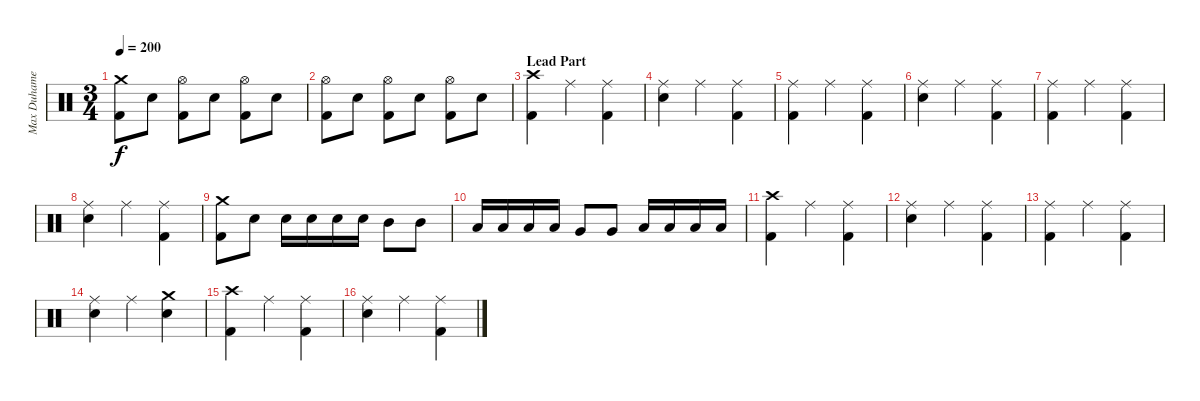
\track ("Max Duhamel" "Max Duhame") {instrument percussion}
\staff {score}
\articulation defaults
\ts (3 4)
\tempo 200
\clef neutral
\ks c
("Crash medium (hit)" "Kick (hit) 2").8{dy f} "Electric Snare (hit)".8 ("Hi-Hat (open)" "Kick (hit) 2").8 "Electric Snare (hit)".8 ("Hi-Hat (open)" "Kick (hit) 2").8 "Electric Snare (hit)".8 |
("Hi-Hat (open)" "Kick (hit) 2").8 "Electric Snare (hit)".8 ("Hi-Hat (open)" "Kick (hit) 2").8 "Electric Snare (hit)".8 ("Hi-Hat (open)" "Kick (hit) 2").8 "Electric Snare (hit)".8 |
\section ("" "Lead Part")
("Crash high (hit)" "Kick (hit) 2").4 "Ride (middle)".4 ("Ride (middle)" "Kick (hit) 2").4 |
("Ride (middle)" "Electric Snare (hit)").4 "Ride (middle)".4 ("Ride (middle)" "Kick (hit) 2").4 |
("Ride (middle)" "Kick (hit) 2").4 "Ride (middle)".4 ("Ride (middle)" "Kick (hit) 2").4 |
("Ride (middle)" "Electric Snare (hit)").4 "Ride (middle)".4 ("Ride (middle)" "Kick (hit) 2").4 |
("Ride (middle)" "Kick (hit) 2").4 "Ride (middle)".4 ("Ride (middle)" "Kick (hit) 2").4 |
("Ride (middle)" "Electric Snare (hit)").4 "Ride (middle)".4 ("Ride (middle)" "Kick (hit) 2").4 |
("Crash medium (hit)" "Kick (hit) 2").8 "Electric Snare (hit)".8 "Electric Snare (hit)".16 "Electric Snare (hit)".16 "Electric Snare (hit)".16 "Electric Snare (hit)".16 "Mid Tom (hit)".8 "Mid Tom (hit)".8 |
"Low Tom (hit)".16 "Low Tom (hit)".16 "Low Tom (hit)".16 "Low Tom (hit)".16 "Very Low Tom (hit)".8 "Very Low Tom (hit)".8 "Low Floor Tom (hit)".16 "Low Floor Tom (hit)".16 "Low Floor Tom (hit)".16 "Low Floor Tom (hit)".16 |
\section ("" "")
("Crash high (hit)" "Kick (hit) 2").4 "Ride (middle)".4 ("Ride (middle)" "Kick (hit) 2").4 |
("Ride (middle)" "Electric Snare (hit)").4 "Ride (middle)".4 ("Ride (middle)" "Kick (hit) 2").4 |
("Ride (middle)" "Kick (hit) 2").4 "Ride (middle)".4 ("Ride (middle)" "Kick (hit) 2").4 |
("Ride (middle)" "Electric Snare (hit)").4 "Ride (middle)".4 ("Crash medium (hit)" "Electric Snare (hit)").4 |
("Crash high (hit)" "Kick (hit) 2").4 "Ride (middle)".4 ("Ride (middle)" "Kick (hit) 2").4 |
("Ride (middle)" "Electric Snare (hit)").4 "Ride (middle)".4 ("Ride (middle)" "Kick (hit) 2").4
